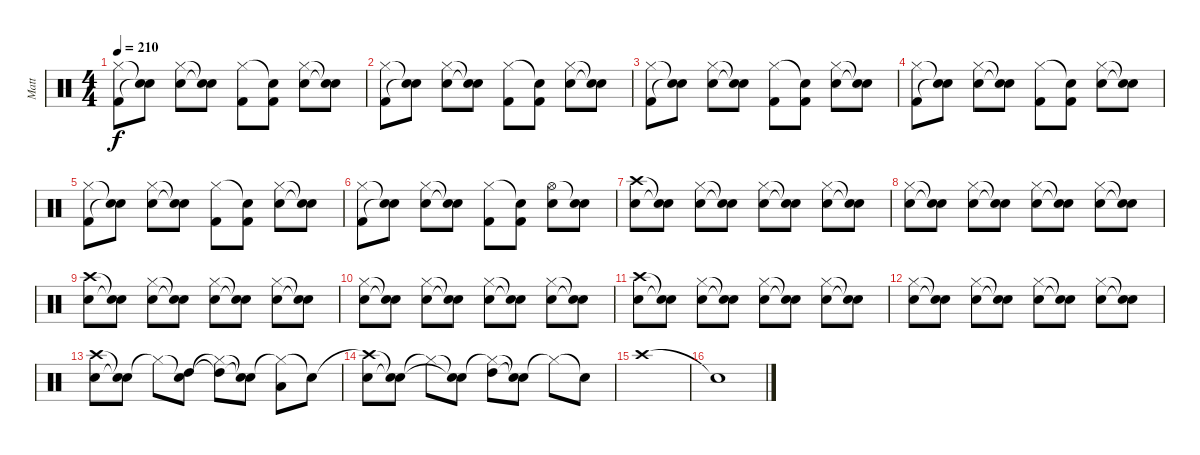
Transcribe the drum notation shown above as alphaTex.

\track ("Matt" "Matt") {instrument percussion}
\staff {score}
\articulation defaults
\ts (4 4)
\tempo 210
\clef neutral
\ks c
("Hi-Hat (closed)" "Kick (hit) 2").8{dy f} ("Snare (hit)"{t} "Snare (hit)"{t}).8 ("Hi-Hat (closed)" "Snare (hit) 2").8 ("Snare (hit)"{t} "Snare (hit)"{t}).8 ("Hi-Hat (closed)" "Kick (hit) 2").8 ("Snare (hit)"{t} "Kick (hit) 2").8 ("Hi-Hat (closed)" "Snare (hit) 2").8 ("Snare (hit)"{t} "Snare (hit)"{t}).8 |
("Hi-Hat (closed)" "Kick (hit) 2").8 ("Snare (hit)"{t} "Snare (hit)"{t}).8 ("Hi-Hat (closed)" "Snare (hit) 2").8 ("Snare (hit)"{t} "Snare (hit)"{t}).8 ("Hi-Hat (closed)" "Kick (hit) 2").8 ("Snare (hit)"{t} "Kick (hit) 2").8 ("Hi-Hat (closed)" "Snare (hit) 2").8 ("Snare (hit)"{t} "Snare (hit)"{t}).8 |
("Hi-Hat (closed)" "Kick (hit) 2").8 ("Snare (hit)"{t} "Snare (hit)"{t}).8 ("Hi-Hat (closed)" "Snare (hit) 2").8 ("Snare (hit)"{t} "Snare (hit)"{t}).8 ("Hi-Hat (closed)" "Kick (hit) 2").8 ("Snare (hit)"{t} "Kick (hit) 2").8 ("Hi-Hat (closed)" "Snare (hit) 2").8 ("Snare (hit)"{t} "Snare (hit)"{t}).8 |
("Hi-Hat (closed)" "Kick (hit) 2").8 ("Snare (hit)"{t} "Snare (hit)"{t}).8 ("Hi-Hat (closed)" "Snare (hit) 2").8 ("Snare (hit)"{t} "Snare (hit)"{t}).8 ("Hi-Hat (closed)" "Kick (hit) 2").8 ("Snare (hit)"{t} "Kick (hit) 2").8 ("Hi-Hat (closed)" "Snare (hit) 2").8 ("Snare (hit)"{t} "Snare (hit)"{t}).8 |
("Hi-Hat (closed)" "Kick (hit) 2").8 ("Snare (hit)"{t} "Snare (hit)"{t}).8 ("Hi-Hat (closed)" "Snare (hit) 2").8 ("Snare (hit)"{t} "Snare (hit)"{t}).8 ("Hi-Hat (closed)" "Kick (hit) 2").8 ("Snare (hit)"{t} "Kick (hit) 2").8 ("Hi-Hat (closed)" "Snare (hit) 2").8 ("Snare (hit)"{t} "Snare (hit)"{t}).8 |
("Hi-Hat (closed)" "Kick (hit) 2").8 ("Snare (hit)"{t} "Snare (hit)"{t}).8 ("Hi-Hat (closed)" "Snare (hit) 2").8 ("Snare (hit)"{t} "Snare (hit)"{t}).8 ("Hi-Hat (closed)" "Kick (hit) 2").8 ("Snare (hit)"{t} "Kick (hit) 2").8 ("Hi-Hat (open)" "Snare (hit) 2").8 ("Snare (hit)"{t} "Snare (hit) 2").8 |
("Crash high (hit)" "Snare (hit) 2").8 ("Snare (hit)"{t} "Snare (hit)"{t}).8 ("Hi-Hat (closed)" "Snare (hit) 2").8 ("Snare (hit)"{t} "Snare (hit)"{t}).8 ("Hi-Hat (closed)" "Snare (hit) 2").8 ("Snare (hit)"{t} "Snare (hit)"{t}).8 ("Hi-Hat (closed)" "Snare (hit) 2").8 ("Snare (hit)"{t} "Snare (hit)"{t}).8 |
("Hi-Hat (closed)" "Snare (hit) 2").8 ("Snare (hit)"{t} "Snare (hit)"{t}).8 ("Hi-Hat (closed)" "Snare (hit) 2").8 ("Snare (hit)"{t} "Snare (hit)"{t}).8 ("Hi-Hat (closed)" "Snare (hit) 2").8 ("Snare (hit)"{t} "Snare (hit)"{t}).8 ("Hi-Hat (closed)" "Snare (hit) 2").8 ("Snare (hit)"{t} "Snare (hit)"{t}).8 |
("Crash high (hit)" "Snare (hit) 2").8 ("Snare (hit)"{t} "Snare (hit)"{t}).8 ("Hi-Hat (closed)" "Snare (hit) 2").8 ("Snare (hit)"{t} "Snare (hit)"{t}).8 ("Hi-Hat (closed)" "Snare (hit) 2").8 ("Snare (hit)"{t} "Snare (hit)"{t}).8 ("Hi-Hat (closed)" "Snare (hit) 2").8 ("Snare (hit)"{t} "Snare (hit)"{t}).8 |
("Hi-Hat (closed)" "Snare (hit) 2").8 ("Snare (hit)"{t} "Snare (hit)"{t}).8 ("Hi-Hat (closed)" "Snare (hit) 2").8 ("Snare (hit)"{t} "Snare (hit)"{t}).8 ("Hi-Hat (closed)" "Snare (hit) 2").8 ("Snare (hit)"{t} "Snare (hit)"{t}).8 ("Hi-Hat (closed)" "Snare (hit) 2").8 ("Snare (hit)"{t} "Snare (hit)"{t}).8 |
("Crash high (hit)" "Snare (hit) 2").8 ("Snare (hit)"{t} "Snare (hit)"{t}).8 ("Hi-Hat (closed)" "Snare (hit) 2").8 ("Snare (hit)"{t} "Snare (hit)"{t}).8 ("Hi-Hat (closed)" "Snare (hit) 2").8 ("Snare (hit)"{t} "Snare (hit)"{t}).8 ("Hi-Hat (closed)" "Snare (hit) 2").8 ("Snare (hit)"{t} "Snare (hit)"{t}).8 |
("Hi-Hat (closed)" "Snare (hit) 2").8 ("Snare (hit)"{t} "Snare (hit)"{t}).8 ("Hi-Hat (closed)" "Snare (hit) 2").8 ("Snare (hit)"{t} "Snare (hit)"{t}).8 ("Hi-Hat (closed)" "Snare (hit) 2").8 ("Snare (hit)"{t} "Snare (hit)"{t}).8 ("Hi-Hat (closed)" "Snare (hit) 2").8 ("Snare (hit)"{t} "Snare (hit)"{t}).8 |
("Crash high (hit)" "Snare (hit) 2").8 ("Snare (hit)"{t} "Snare (hit)"{t}).8 "Hi-Hat (closed)"{t}.8 ("Snare (hit)"{t} "High Tom (hit)").8 ("Hi-Hat (closed)"{t} "High Tom (hit)"{t}).8 ("Snare (hit)"{t} "Snare (hit)"{t}).8 ("Hi-Hat (closed)"{t} "Low Tom (hit)").8 "Snare (hit)"{t}.8 |
("Crash high (hit)"{t} "Snare (hit) 2").8 ("Snare (hit)"{t} "Snare (hit)"{t}).8 "Hi-Hat (closed)"{t}.8 ("Snare (hit)"{t} "Snare (hit)"{t}).8 ("Hi-Hat (closed)"{t} "High Tom (hit)").8 ("Snare (hit)"{t} "Snare (hit)"{t}).8 "Hi-Hat (closed)"{t}.8 "Snare (hit)"{t}.8 |
"Crash high (hit)".1 |
"Snare (hit)"{t}.1
